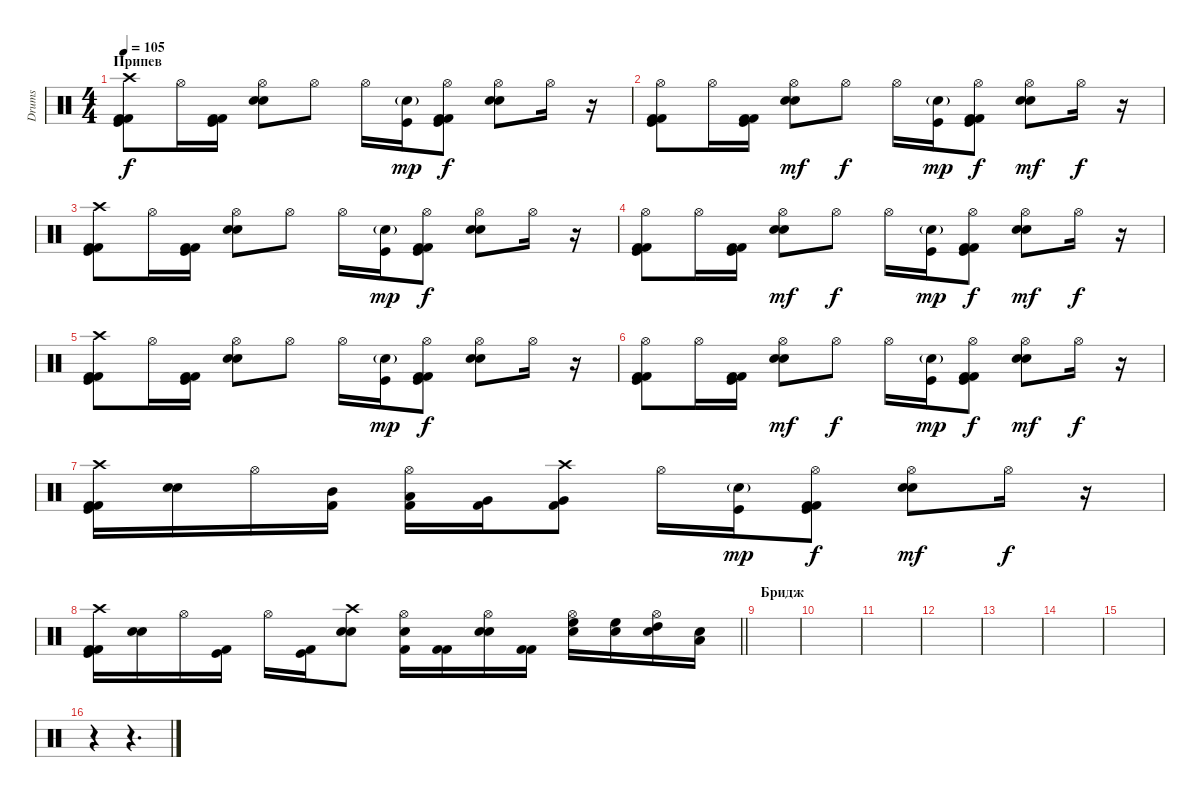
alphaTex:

\track ("Drums" "Drums") {instrument percussion}
\staff {score}
\articulation defaults
\ts (4 4)
\section ("" "Припев")
\tempo 105
\clef neutral
\ks c
("Crash high (hit)" "Kick (hit) 2" "Kick (hit) 2" "Kick (hit)").8{dy f volume 13} "Hi-Hat (open)".16 ("Kick (hit) 2" "Kick (hit) 2" "Kick (hit)").16 ("Hi-Hat (open)" "Electric Snare (hit)" "Snare (hit) 2").8 "Hi-Hat (open)".8 "Hi-Hat (open)".16 ("Snare (hit) 2"{g} "Kick (hit)").16{dy mp} ("Hi-Hat (open)" "Kick (hit) 2" "Kick (hit) 2" "Kick (hit)").8{dy f} ("Hi-Hat (open)" "Electric Snare (hit)" "Snare (hit) 2").8 "Hi-Hat (open)".16 r.16 |
("Hi-Hat (open)" "Kick (hit) 2" "Kick (hit) 2" "Kick (hit)").8 "Hi-Hat (open)".16 ("Kick (hit) 2" "Kick (hit) 2" "Kick (hit)").16 ("Hi-Hat (open)" "Electric Snare (hit)" "Snare (hit) 2").8{dy mf} "Hi-Hat (open)".8{dy f} "Hi-Hat (open)".16 ("Snare (hit) 2"{g} "Kick (hit)").16{dy mp} ("Hi-Hat (open)" "Kick (hit) 2" "Kick (hit) 2" "Kick (hit)").8{dy f} ("Hi-Hat (open)" "Electric Snare (hit)" "Snare (hit) 2").8{dy mf} "Hi-Hat (open)".16{dy f} r.16 |
("Crash high (hit)" "Kick (hit) 2" "Kick (hit) 2" "Kick (hit)").8 "Hi-Hat (open)".16 ("Kick (hit) 2" "Kick (hit) 2" "Kick (hit)").16 ("Hi-Hat (open)" "Electric Snare (hit)" "Snare (hit) 2").8 "Hi-Hat (open)".8 "Hi-Hat (open)".16 ("Snare (hit) 2"{g} "Kick (hit)").16{dy mp} ("Hi-Hat (open)" "Kick (hit) 2" "Kick (hit) 2" "Kick (hit)").8{dy f} ("Hi-Hat (open)" "Electric Snare (hit)" "Snare (hit) 2").8 "Hi-Hat (open)".16 r.16 |
("Hi-Hat (open)" "Kick (hit) 2" "Kick (hit) 2" "Kick (hit)").8 "Hi-Hat (open)".16 ("Kick (hit) 2" "Kick (hit) 2" "Kick (hit)").16 ("Hi-Hat (open)" "Electric Snare (hit)" "Snare (hit) 2").8{dy mf} "Hi-Hat (open)".8{dy f} "Hi-Hat (open)".16 ("Snare (hit) 2"{g} "Kick (hit)").16{dy mp} ("Hi-Hat (open)" "Kick (hit) 2" "Kick (hit) 2" "Kick (hit)").8{dy f} ("Hi-Hat (open)" "Electric Snare (hit)" "Snare (hit) 2").8{dy mf} "Hi-Hat (open)".16{dy f} r.16 |
("Crash high (hit)" "Kick (hit) 2" "Kick (hit) 2" "Kick (hit)").8 "Hi-Hat (open)".16 ("Kick (hit) 2" "Kick (hit) 2" "Kick (hit)").16 ("Hi-Hat (open)" "Electric Snare (hit)" "Snare (hit) 2").8 "Hi-Hat (open)".8 "Hi-Hat (open)".16 ("Snare (hit) 2"{g} "Kick (hit)").16{dy mp} ("Hi-Hat (open)" "Kick (hit) 2" "Kick (hit) 2" "Kick (hit)").8{dy f} ("Hi-Hat (open)" "Electric Snare (hit)" "Snare (hit) 2").8 "Hi-Hat (open)".16 r.16 |
("Hi-Hat (open)" "Kick (hit) 2" "Kick (hit) 2" "Kick (hit)").8 "Hi-Hat (open)".16 ("Kick (hit) 2" "Kick (hit) 2" "Kick (hit)").16 ("Hi-Hat (open)" "Electric Snare (hit)" "Snare (hit) 2").8{dy mf} "Hi-Hat (open)".8{dy f} "Hi-Hat (open)".16 ("Snare (hit) 2"{g} "Kick (hit)").16{dy mp} ("Hi-Hat (open)" "Kick (hit) 2" "Kick (hit) 2" "Kick (hit)").8{dy f} ("Hi-Hat (open)" "Electric Snare (hit)" "Snare (hit) 2").8{dy mf} "Hi-Hat (open)".16{dy f} r.16 |
("Crash high (hit)" "Kick (hit) 2" "Kick (hit) 2" "Kick (hit)").16 ("Electric Snare (hit)" "Snare (hit) 2").16 "Hi-Hat (open)".16 ("Mid Tom (hit)" "Kick (hit) 2").16 ("Hi-Hat (open)" "Low Tom (hit)" "Kick (hit) 2").16 ("Very Low Tom (hit)" "Kick (hit) 2").16 ("Crash high (hit)" "Very Low Tom (hit)" "Kick (hit) 2").8 "Hi-Hat (open)".16 ("Snare (hit) 2"{g} "Kick (hit)").16{dy mp} ("Hi-Hat (open)" "Kick (hit) 2" "Kick (hit) 2" "Kick (hit)").8{dy f} ("Hi-Hat (open)" "Electric Snare (hit)" "Snare (hit) 2").8{dy mf} "Hi-Hat (open)".16{dy f} r.16 |
\barLineRight lightlight
("Crash high (hit)" "Kick (hit) 2" "Kick (hit) 2" "Kick (hit)").16 ("Electric Snare (hit)" "Snare (hit) 2").16 "Hi-Hat (open)".16 ("Kick (hit) 2" "Kick (hit)").16 "Hi-Hat (open)".16 ("Kick (hit) 2" "Kick (hit)").16 ("Crash high (hit)" "Electric Snare (hit)" "Snare (hit) 2").8 ("Hi-Hat (open)" "Electric Snare (hit)" "Kick (hit) 2").16 ("Kick (hit) 2" "Kick (hit) 2").16 ("Hi-Hat (open)" "Electric Snare (hit)" "Electric Snare (hit)").16 ("Kick (hit) 2" "Kick (hit) 2").16 ("Hi-Hat (open)" "Electric Snare (hit)" "High Floor Tom (hit)").16 ("Electric Snare (hit)" "High Floor Tom (hit)").16 ("Hi-Hat (open)" "Electric Snare (hit)" "High Tom (hit)").16 ("Electric Snare (hit)" "Low Tom (hit)").16 |
\section ("" "Бридж")
|
|
|
|
|
|
|
r.4 r.4{d}
